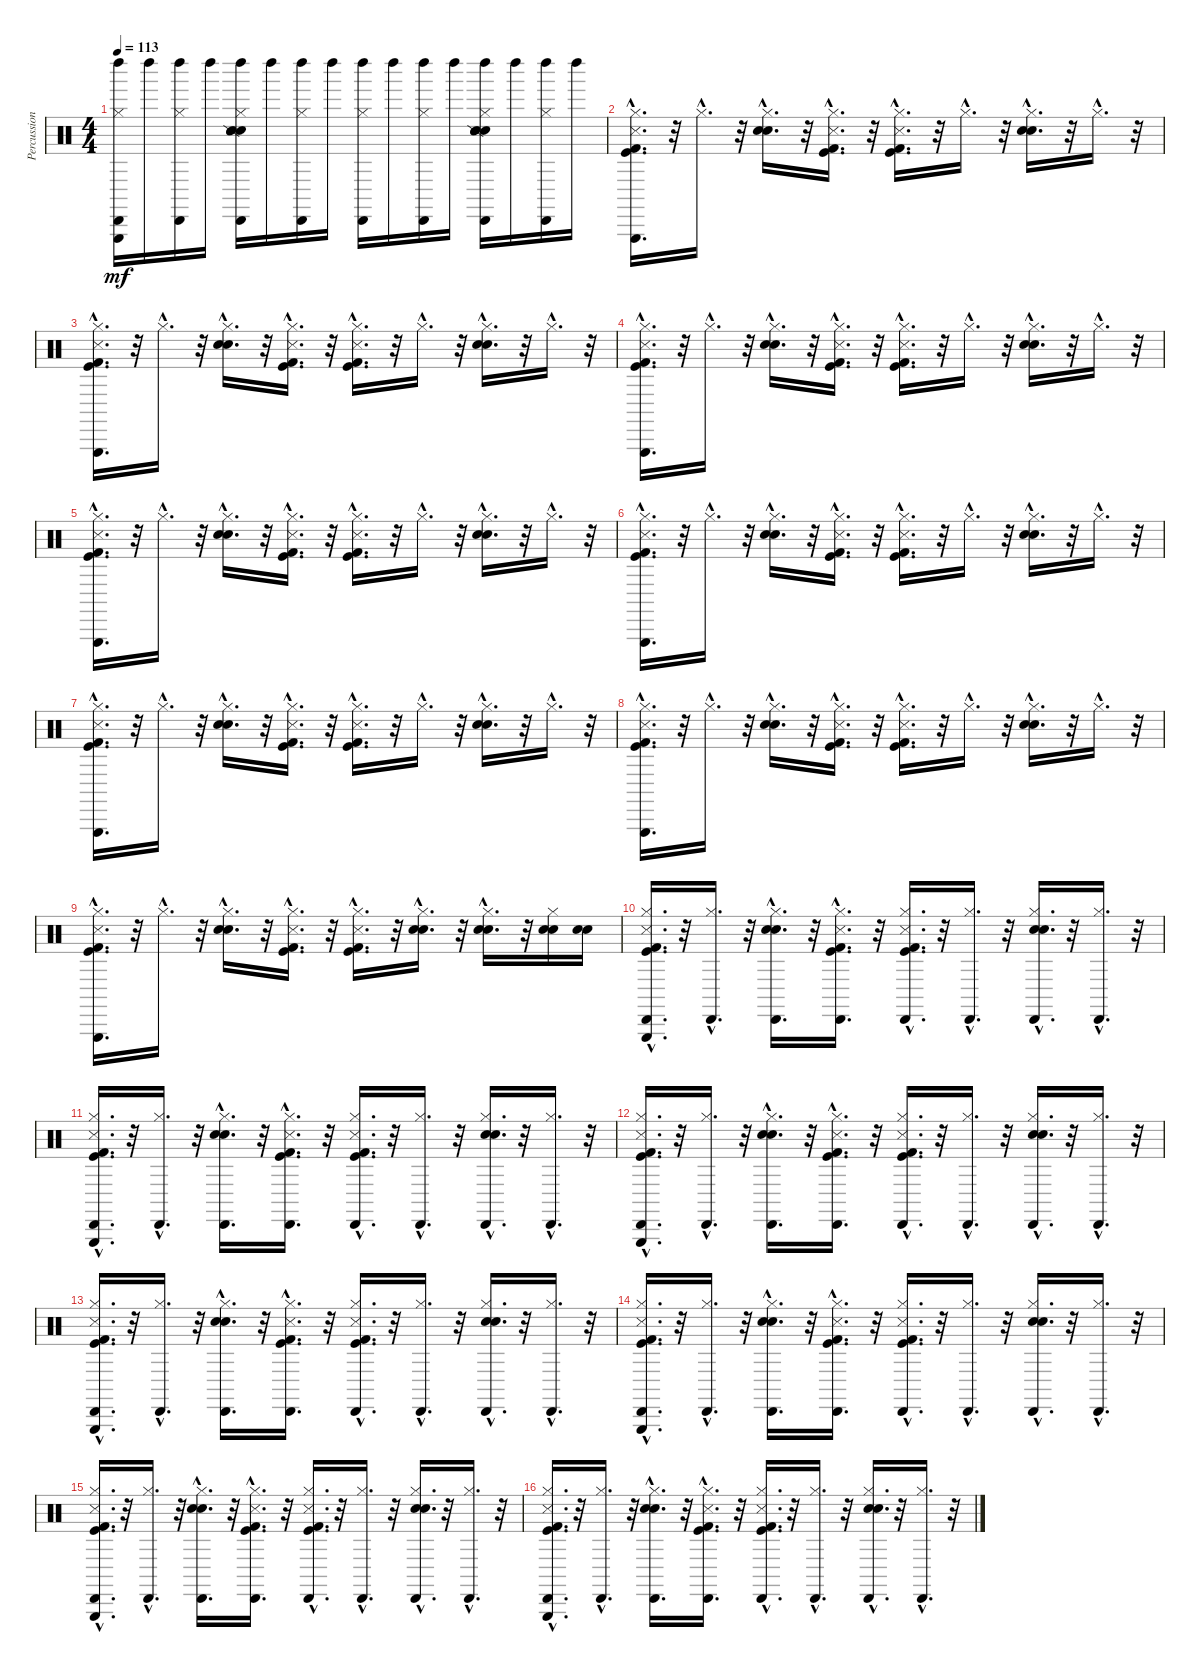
\track ("Percussion" "Percussion") {instrument percussion}
\staff {score}
\articulation defaults
\ts (4 4)
\tempo 113
\clef neutral
\ks c
("Hi-Hat (closed)" "Triangle (hit)" "Cabasa (hit)" "Left Maraca (hit)").16{dy mf} "Left Maraca (hit)".16 ("Hi-Hat (closed)" "Cabasa (hit)" "Left Maraca (hit)").16 "Left Maraca (hit)".16 ("Hi-Hat (closed)" "Cabasa (hit)" "Left Maraca (hit)" "Hand Clap (hit)" "Snare (side stick) 2" "Snare (hit)").16 "Left Maraca (hit)".16 ("Hi-Hat (closed)" "Cabasa (hit)" "Left Maraca (hit)").16 "Left Maraca (hit)".16 ("Hi-Hat (closed)" "Cabasa (hit)" "Left Maraca (hit)").16 "Left Maraca (hit)".16 ("Hi-Hat (closed)" "Cabasa (hit)" "Left Maraca (hit)").16 "Left Maraca (hit)".16 ("Hand Clap (hit)" "Hi-Hat (closed)" "Cabasa (hit)" "Left Maraca (hit)" "Snare (side stick) 2" "Snare (hit)").16 "Left Maraca (hit)".16 ("Hi-Hat (closed)" "Cabasa (hit)" "Left Maraca (hit)").16 "Left Maraca (hit)".16 |
("Hi-Hat (closed)"{hac} "Kick (hit)"{hac} "Metronome (hit)"{hac} "Triangle (hit)"{hac} "Kick (hit) 2"{hac}).16{d} r.32 "Hi-Hat (closed)"{hac}.16{d} r.32 ("Hi-Hat (closed)"{hac} "Electric Snare (hit)"{hac} "Hand Clap (hit)"{hac}).16{d} r.32 ("Hi-Hat (closed)"{hac} "Metronome (hit)"{hac} "Kick (hit)"{hac} "Kick (hit) 2"{hac}).16{d} r.32 ("Kick (hit) 2"{hac} "Hi-Hat (closed)"{hac} "Kick (hit)"{hac} "Metronome (hit)"{hac}).16{d} r.32 "Hi-Hat (closed)"{hac}.16{d} r.32 ("Hi-Hat (closed)"{hac} "Electric Snare (hit)"{hac} "Hand Clap (hit)"{hac}).16{d} r.32 "Hi-Hat (closed)"{hac}.16{d} r.32 |
("Kick (hit) 2"{hac} "Triangle (hit)"{hac} "Metronome (hit)"{hac} "Kick (hit)"{hac} "Hi-Hat (closed)"{hac}).16{d} r.32 "Hi-Hat (closed)"{hac}.16{d} r.32 ("Hand Clap (hit)"{hac} "Electric Snare (hit)"{hac} "Hi-Hat (closed)"{hac}).16{d} r.32 ("Metronome (hit)"{hac} "Kick (hit)"{hac} "Kick (hit) 2"{hac} "Hi-Hat (closed)"{hac}).16{d} r.32 ("Kick (hit) 2"{hac} "Metronome (hit)"{hac} "Kick (hit)"{hac} "Hi-Hat (closed)"{hac}).16{d} r.32 "Hi-Hat (closed)"{hac}.16{d} r.32 ("Hand Clap (hit)"{hac} "Electric Snare (hit)"{hac} "Hi-Hat (closed)"{hac}).16{d} r.32 "Hi-Hat (closed)"{hac}.16{d} r.32 |
("Kick (hit) 2"{hac} "Triangle (hit)"{hac} "Metronome (hit)"{hac} "Kick (hit)"{hac} "Hi-Hat (closed)"{hac}).16{d} r.32 "Hi-Hat (closed)"{hac}.16{d} r.32 ("Hand Clap (hit)"{hac} "Electric Snare (hit)"{hac} "Hi-Hat (closed)"{hac}).16{d} r.32 ("Kick (hit) 2"{hac} "Kick (hit)"{hac} "Metronome (hit)"{hac} "Hi-Hat (closed)"{hac}).16{d} r.32 ("Kick (hit) 2"{hac} "Metronome (hit)"{hac} "Kick (hit)"{hac} "Hi-Hat (closed)"{hac}).16{d} r.32 "Hi-Hat (closed)"{hac}.16{d} r.32 ("Hand Clap (hit)"{hac} "Electric Snare (hit)"{hac} "Hi-Hat (closed)"{hac}).16{d} r.32 "Hi-Hat (closed)"{hac}.16{d} r.32 |
("Kick (hit) 2"{hac} "Triangle (hit)"{hac} "Metronome (hit)"{hac} "Kick (hit)"{hac} "Hi-Hat (closed)"{hac}).16{d} r.32 "Hi-Hat (closed)"{hac}.16{d} r.32 ("Hand Clap (hit)"{hac} "Electric Snare (hit)"{hac} "Hi-Hat (closed)"{hac}).16{d} r.32 ("Kick (hit) 2"{hac} "Kick (hit)"{hac} "Metronome (hit)"{hac} "Hi-Hat (closed)"{hac}).16{d} r.32 ("Kick (hit) 2"{hac} "Metronome (hit)"{hac} "Kick (hit)"{hac} "Hi-Hat (closed)"{hac}).16{d} r.32 "Hi-Hat (closed)"{hac}.16{d} r.32 ("Hand Clap (hit)"{hac} "Electric Snare (hit)"{hac} "Hi-Hat (closed)"{hac}).16{d} r.32 "Hi-Hat (closed)"{hac}.16{d} r.32 |
("Kick (hit) 2"{hac} "Triangle (hit)"{hac} "Metronome (hit)"{hac} "Kick (hit)"{hac} "Hi-Hat (closed)"{hac}).16{d} r.32 "Hi-Hat (closed)"{hac}.16{d} r.32 ("Electric Snare (hit)"{hac} "Hi-Hat (closed)"{hac} "Hand Clap (hit)"{hac}).16{d} r.32 ("Kick (hit)"{hac} "Kick (hit) 2"{hac} "Hi-Hat (closed)"{hac} "Metronome (hit)"{hac}).16{d} r.32 ("Hi-Hat (closed)"{hac} "Kick (hit) 2"{hac} "Metronome (hit)"{hac} "Kick (hit)"{hac}).16{d} r.32 "Hi-Hat (closed)"{hac}.16{d} r.32 ("Hand Clap (hit)"{hac} "Electric Snare (hit)"{hac} "Hi-Hat (closed)"{hac}).16{d} r.32 "Hi-Hat (closed)"{hac}.16{d} r.32 |
("Kick (hit) 2"{hac} "Triangle (hit)"{hac} "Metronome (hit)"{hac} "Kick (hit)"{hac} "Hi-Hat (closed)"{hac}).16{d} r.32 "Hi-Hat (closed)"{hac}.16{d} r.32 ("Hand Clap (hit)"{hac} "Electric Snare (hit)"{hac} "Hi-Hat (closed)"{hac}).16{d} r.32 ("Kick (hit) 2"{hac} "Kick (hit)"{hac} "Metronome (hit)"{hac} "Hi-Hat (closed)"{hac}).16{d} r.32 ("Kick (hit) 2"{hac} "Metronome (hit)"{hac} "Kick (hit)"{hac} "Hi-Hat (closed)"{hac}).16{d} r.32 "Hi-Hat (closed)"{hac}.16{d} r.32 ("Hand Clap (hit)"{hac} "Electric Snare (hit)"{hac} "Hi-Hat (closed)"{hac}).16{d} r.32 "Hi-Hat (closed)"{hac}.16{d} r.32 |
("Kick (hit) 2"{hac} "Triangle (hit)"{hac} "Metronome (hit)"{hac} "Kick (hit)"{hac} "Hi-Hat (closed)"{hac}).16{d} r.32 "Hi-Hat (closed)"{hac}.16{d} r.32 ("Hand Clap (hit)"{hac} "Electric Snare (hit)"{hac} "Hi-Hat (closed)"{hac}).16{d} r.32 ("Kick (hit) 2"{hac} "Kick (hit)"{hac} "Metronome (hit)"{hac} "Hi-Hat (closed)"{hac}).16{d} r.32 ("Kick (hit) 2"{hac} "Metronome (hit)"{hac} "Kick (hit)"{hac} "Hi-Hat (closed)"{hac}).16{d} r.32 "Hi-Hat (closed)"{hac}.16{d} r.32 ("Hand Clap (hit)"{hac} "Electric Snare (hit)"{hac} "Hi-Hat (closed)"{hac}).16{d} r.32 "Hi-Hat (closed)"{hac}.16{d} r.32 |
("Hi-Hat (closed)"{hac} "Kick (hit)"{hac} "Metronome (hit)"{hac} "Triangle (hit)"{hac} "Kick (hit) 2"{hac}).16{d} r.32 "Hi-Hat (closed)"{hac}.16{d} r.32 ("Hi-Hat (closed)"{hac} "Electric Snare (hit)"{hac} "Hand Clap (hit)"{hac}).16{d} r.32 ("Hi-Hat (closed)"{hac} "Metronome (hit)"{hac} "Kick (hit)"{hac} "Kick (hit) 2"{hac}).16{d} r.32 ("Hi-Hat (closed)"{hac} "Kick (hit)"{hac} "Metronome (hit)"{hac} "Kick (hit) 2"{hac}).16{d} r.32 ("Hand Clap (hit)"{hac} "Electric Snare (hit)"{hac} "Hi-Hat (closed)"{hac}).16{d} r.32 ("Hi-Hat (closed)"{hac} "Electric Snare (hit)"{hac} "Hand Clap (hit)"{hac}).16{d} r.32 ("Hand Clap (hit)" "Electric Snare (hit)" "Hi-Hat (closed)").16 ("Hand Clap (hit)" "Electric Snare (hit)").16 |
("Hi-Hat (closed)"{hac} "Kick (hit)"{hac} "Metronome (hit)"{hac} "Triangle (hit)"{hac} "Cabasa (hit)"{hac} "Kick (hit) 2"{hac}).16{d} r.32 ("Hi-Hat (closed)"{hac} "Cabasa (hit)"{hac}).16{d} r.32 ("Hi-Hat (closed)"{hac} "Electric Snare (hit)"{hac} "Cabasa (hit)"{hac} "Hand Clap (hit)"{hac}).16{d} r.32 ("Hi-Hat (closed)"{hac} "Metronome (hit)"{hac} "Kick (hit)"{hac} "Cabasa (hit)"{hac} "Kick (hit) 2"{hac}).16{d} r.32 ("Hi-Hat (closed)"{hac} "Kick (hit)"{hac} "Metronome (hit)"{hac} "Cabasa (hit)"{hac} "Kick (hit) 2"{hac}).16{d} r.32 ("Hi-Hat (closed)"{hac} "Cabasa (hit)"{hac}).16{d} r.32 ("Hi-Hat (closed)"{hac} "Electric Snare (hit)"{hac} "Hand Clap (hit)"{hac} "Cabasa (hit)"{hac}).16{d} r.32 ("Hi-Hat (closed)"{hac} "Cabasa (hit)"{hac}).16{d} r.32 |
("Hi-Hat (closed)"{hac} "Kick (hit)"{hac} "Metronome (hit)"{hac} "Triangle (hit)"{hac} "Cabasa (hit)"{hac} "Kick (hit) 2"{hac}).16{d} r.32 ("Hi-Hat (closed)"{hac} "Cabasa (hit)"{hac}).16{d} r.32 ("Hi-Hat (closed)"{hac} "Electric Snare (hit)"{hac} "Cabasa (hit)"{hac} "Hand Clap (hit)"{hac}).16{d} r.32 ("Hi-Hat (closed)"{hac} "Metronome (hit)"{hac} "Kick (hit)"{hac} "Cabasa (hit)"{hac} "Kick (hit) 2"{hac}).16{d} r.32 ("Hi-Hat (closed)"{hac} "Kick (hit)"{hac} "Metronome (hit)"{hac} "Cabasa (hit)"{hac} "Kick (hit) 2"{hac}).16{d} r.32 ("Hi-Hat (closed)"{hac} "Cabasa (hit)"{hac}).16{d} r.32 ("Hi-Hat (closed)"{hac} "Electric Snare (hit)"{hac} "Hand Clap (hit)"{hac} "Cabasa (hit)"{hac}).16{d} r.32 ("Hi-Hat (closed)"{hac} "Cabasa (hit)"{hac}).16{d} r.32 |
("Hi-Hat (closed)"{hac} "Kick (hit)"{hac} "Metronome (hit)"{hac} "Triangle (hit)"{hac} "Cabasa (hit)"{hac} "Kick (hit) 2"{hac}).16{d} r.32 ("Hi-Hat (closed)"{hac} "Cabasa (hit)"{hac}).16{d} r.32 ("Hi-Hat (closed)"{hac} "Electric Snare (hit)"{hac} "Cabasa (hit)"{hac} "Hand Clap (hit)"{hac}).16{d} r.32 ("Hi-Hat (closed)"{hac} "Metronome (hit)"{hac} "Kick (hit)"{hac} "Cabasa (hit)"{hac} "Kick (hit) 2"{hac}).16{d} r.32 ("Hi-Hat (closed)"{hac} "Kick (hit)"{hac} "Metronome (hit)"{hac} "Cabasa (hit)"{hac} "Kick (hit) 2"{hac}).16{d} r.32 ("Hi-Hat (closed)"{hac} "Cabasa (hit)"{hac}).16{d} r.32 ("Hi-Hat (closed)"{hac} "Electric Snare (hit)"{hac} "Hand Clap (hit)"{hac} "Cabasa (hit)"{hac}).16{d} r.32 ("Hi-Hat (closed)"{hac} "Cabasa (hit)"{hac}).16{d} r.32 |
("Hi-Hat (closed)"{hac} "Kick (hit)"{hac} "Metronome (hit)"{hac} "Triangle (hit)"{hac} "Cabasa (hit)"{hac} "Kick (hit) 2"{hac}).16{d} r.32 ("Hi-Hat (closed)"{hac} "Cabasa (hit)"{hac}).16{d} r.32 ("Hi-Hat (closed)"{hac} "Electric Snare (hit)"{hac} "Cabasa (hit)"{hac} "Hand Clap (hit)"{hac}).16{d} r.32 ("Hi-Hat (closed)"{hac} "Metronome (hit)"{hac} "Kick (hit)"{hac} "Cabasa (hit)"{hac} "Kick (hit) 2"{hac}).16{d} r.32 ("Hi-Hat (closed)"{hac} "Kick (hit)"{hac} "Metronome (hit)"{hac} "Cabasa (hit)"{hac} "Kick (hit) 2"{hac}).16{d} r.32 ("Hi-Hat (closed)"{hac} "Cabasa (hit)"{hac}).16{d} r.32 ("Hi-Hat (closed)"{hac} "Electric Snare (hit)"{hac} "Hand Clap (hit)"{hac} "Cabasa (hit)"{hac}).16{d} r.32 ("Hi-Hat (closed)"{hac} "Cabasa (hit)"{hac}).16{d} r.32 |
("Hi-Hat (closed)"{hac} "Kick (hit)"{hac} "Metronome (hit)"{hac} "Triangle (hit)"{hac} "Cabasa (hit)"{hac} "Kick (hit) 2"{hac}).16{d} r.32 ("Hi-Hat (closed)"{hac} "Cabasa (hit)"{hac}).16{d} r.32 ("Hi-Hat (closed)"{hac} "Electric Snare (hit)"{hac} "Cabasa (hit)"{hac} "Hand Clap (hit)"{hac}).16{d} r.32 ("Hi-Hat (closed)"{hac} "Metronome (hit)"{hac} "Kick (hit)"{hac} "Cabasa (hit)"{hac} "Kick (hit) 2"{hac}).16{d} r.32 ("Hi-Hat (closed)"{hac} "Kick (hit)"{hac} "Metronome (hit)"{hac} "Cabasa (hit)"{hac} "Kick (hit) 2"{hac}).16{d} r.32 ("Hi-Hat (closed)"{hac} "Cabasa (hit)"{hac}).16{d} r.32 ("Hi-Hat (closed)"{hac} "Electric Snare (hit)"{hac} "Hand Clap (hit)"{hac} "Cabasa (hit)"{hac}).16{d} r.32 ("Hi-Hat (closed)"{hac} "Cabasa (hit)"{hac}).16{d} r.32 |
("Hi-Hat (closed)"{hac} "Kick (hit)"{hac} "Metronome (hit)"{hac} "Triangle (hit)"{hac} "Cabasa (hit)"{hac} "Kick (hit) 2"{hac}).16{d} r.32 ("Hi-Hat (closed)"{hac} "Cabasa (hit)"{hac}).16{d} r.32 ("Hi-Hat (closed)"{hac} "Electric Snare (hit)"{hac} "Cabasa (hit)"{hac} "Hand Clap (hit)"{hac}).16{d} r.32 ("Hi-Hat (closed)"{hac} "Metronome (hit)"{hac} "Kick (hit)"{hac} "Cabasa (hit)"{hac} "Kick (hit) 2"{hac}).16{d} r.32 ("Hi-Hat (closed)"{hac} "Kick (hit)"{hac} "Metronome (hit)"{hac} "Cabasa (hit)"{hac} "Kick (hit) 2"{hac}).16{d} r.32 ("Hi-Hat (closed)"{hac} "Cabasa (hit)"{hac}).16{d} r.32 ("Hi-Hat (closed)"{hac} "Electric Snare (hit)"{hac} "Hand Clap (hit)"{hac} "Cabasa (hit)"{hac}).16{d} r.32 ("Hi-Hat (closed)"{hac} "Cabasa (hit)"{hac}).16{d} r.32 |
("Hi-Hat (closed)"{hac} "Kick (hit)"{hac} "Metronome (hit)"{hac} "Triangle (hit)"{hac} "Cabasa (hit)"{hac} "Kick (hit) 2"{hac}).16{d} r.32 ("Hi-Hat (closed)"{hac} "Cabasa (hit)"{hac}).16{d} r.32 ("Hi-Hat (closed)"{hac} "Electric Snare (hit)"{hac} "Cabasa (hit)"{hac} "Hand Clap (hit)"{hac}).16{d} r.32 ("Hi-Hat (closed)"{hac} "Metronome (hit)"{hac} "Kick (hit)"{hac} "Cabasa (hit)"{hac} "Kick (hit) 2"{hac}).16{d} r.32 ("Hi-Hat (closed)"{hac} "Kick (hit)"{hac} "Metronome (hit)"{hac} "Cabasa (hit)"{hac} "Kick (hit) 2"{hac}).16{d} r.32 ("Hi-Hat (closed)"{hac} "Cabasa (hit)"{hac}).16{d} r.32 ("Hi-Hat (closed)"{hac} "Electric Snare (hit)"{hac} "Hand Clap (hit)"{hac} "Cabasa (hit)"{hac}).16{d} r.32 ("Hi-Hat (closed)"{hac} "Cabasa (hit)"{hac}).16{d} r.32
